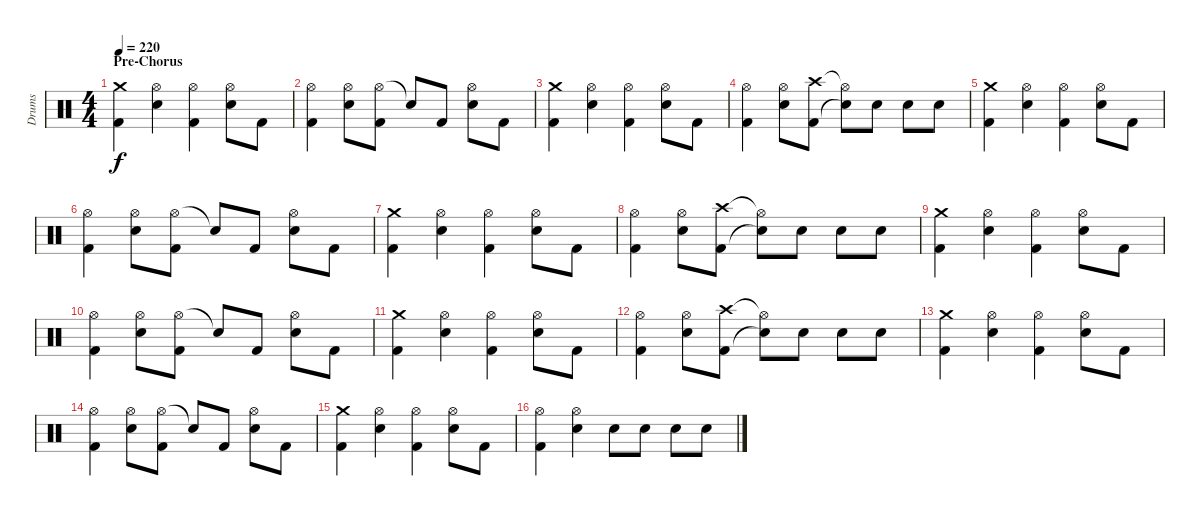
\track ("Drums" "Drums") {instrument percussion}
\staff {score}
\articulation defaults
\ts (4 4)
\section ("" "Pre-Chorus")
\tempo 220
\clef neutral
\ks c
("Crash medium (hit)" "Kick (hit) 2").4{dy f} ("Hi-Hat (open)" "Electric Snare (hit)").4 ("Hi-Hat (open)" "Kick (hit) 2").4 ("Hi-Hat (open)" "Electric Snare (hit)").8 "Kick (hit) 2".8 |
("Hi-Hat (open)" "Kick (hit) 2").4 ("Hi-Hat (open)" "Electric Snare (hit)").8 ("Hi-Hat (open)" "Kick (hit) 2").8 "Snare (hit)"{t}.8 "Kick (hit) 2".8 ("Hi-Hat (open)" "Electric Snare (hit)").8 "Kick (hit) 2".8 |
("Crash medium (hit)" "Kick (hit) 2").4 ("Hi-Hat (open)" "Electric Snare (hit)").4 ("Hi-Hat (open)" "Kick (hit) 2").4 ("Hi-Hat (open)" "Electric Snare (hit)").8 "Kick (hit) 2".8 |
("Hi-Hat (open)" "Kick (hit) 2").4 ("Hi-Hat (open)" "Electric Snare (hit)").8 ("Crash high (hit)" "Kick (hit) 2").8 ("Hi-Hat (open)"{t} "Snare (hit)"{t}).8 "Electric Snare (hit)".8 "Electric Snare (hit)".8 "Electric Snare (hit)".8 |
("Crash medium (hit)" "Kick (hit) 2").4 ("Hi-Hat (open)" "Electric Snare (hit)").4 ("Hi-Hat (open)" "Kick (hit) 2").4 ("Hi-Hat (open)" "Electric Snare (hit)").8 "Kick (hit) 2".8 |
("Hi-Hat (open)" "Kick (hit) 2").4 ("Hi-Hat (open)" "Electric Snare (hit)").8 ("Hi-Hat (open)" "Kick (hit) 2").8 "Snare (hit)"{t}.8 "Kick (hit) 2".8 ("Hi-Hat (open)" "Electric Snare (hit)").8 "Kick (hit) 2".8 |
("Crash medium (hit)" "Kick (hit) 2").4 ("Hi-Hat (open)" "Electric Snare (hit)").4 ("Hi-Hat (open)" "Kick (hit) 2").4 ("Hi-Hat (open)" "Electric Snare (hit)").8 "Kick (hit) 2".8 |
("Hi-Hat (open)" "Kick (hit) 2").4 ("Hi-Hat (open)" "Electric Snare (hit)").8 ("Crash high (hit)" "Kick (hit) 2").8 ("Hi-Hat (open)"{t} "Snare (hit)"{t}).8 "Electric Snare (hit)".8 "Electric Snare (hit)".8 "Electric Snare (hit)".8 |
("Crash medium (hit)" "Kick (hit) 2").4 ("Hi-Hat (open)" "Electric Snare (hit)").4 ("Hi-Hat (open)" "Kick (hit) 2").4 ("Hi-Hat (open)" "Electric Snare (hit)").8 "Kick (hit) 2".8 |
("Hi-Hat (open)" "Kick (hit) 2").4 ("Hi-Hat (open)" "Electric Snare (hit)").8 ("Hi-Hat (open)" "Kick (hit) 2").8 "Snare (hit)"{t}.8 "Kick (hit) 2".8 ("Hi-Hat (open)" "Electric Snare (hit)").8 "Kick (hit) 2".8 |
("Crash medium (hit)" "Kick (hit) 2").4 ("Hi-Hat (open)" "Electric Snare (hit)").4 ("Hi-Hat (open)" "Kick (hit) 2").4 ("Hi-Hat (open)" "Electric Snare (hit)").8 "Kick (hit) 2".8 |
("Hi-Hat (open)" "Kick (hit) 2").4 ("Hi-Hat (open)" "Electric Snare (hit)").8 ("Crash high (hit)" "Kick (hit) 2").8 ("Hi-Hat (open)"{t} "Snare (hit)"{t}).8 "Electric Snare (hit)".8 "Electric Snare (hit)".8 "Electric Snare (hit)".8 |
("Crash medium (hit)" "Kick (hit) 2").4 ("Hi-Hat (open)" "Electric Snare (hit)").4 ("Hi-Hat (open)" "Kick (hit) 2").4 ("Hi-Hat (open)" "Electric Snare (hit)").8 "Kick (hit) 2".8 |
("Hi-Hat (open)" "Kick (hit) 2").4 ("Hi-Hat (open)" "Electric Snare (hit)").8 ("Hi-Hat (open)" "Kick (hit) 2").8 "Snare (hit)"{t}.8 "Kick (hit) 2".8 ("Hi-Hat (open)" "Electric Snare (hit)").8 "Kick (hit) 2".8 |
("Crash medium (hit)" "Kick (hit) 2").4 ("Hi-Hat (open)" "Electric Snare (hit)").4 ("Hi-Hat (open)" "Kick (hit) 2").4 ("Hi-Hat (open)" "Electric Snare (hit)").8 "Kick (hit) 2".8 |
("Hi-Hat (open)" "Kick (hit) 2").4 ("Hi-Hat (open)" "Electric Snare (hit)").4 "Electric Snare (hit)".8 "Electric Snare (hit)".8 "Electric Snare (hit)".8 "Electric Snare (hit)".8
